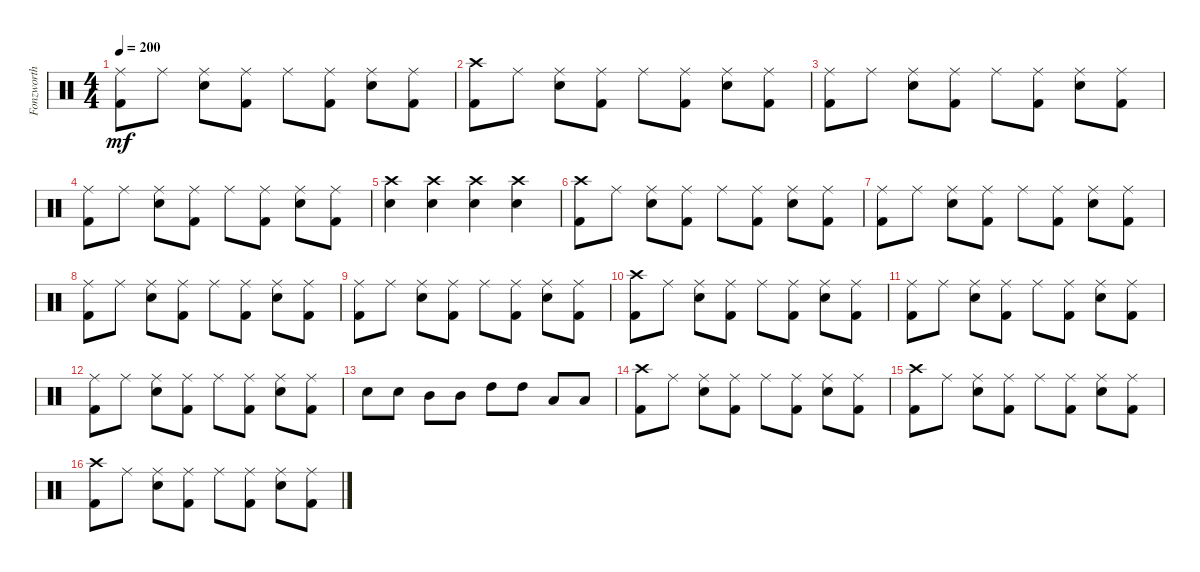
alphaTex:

\track ("Fonzworth Fred" "Fonzworth ") {instrument percussion}
\staff {score}
\articulation defaults
\ts (4 4)
\tempo 200
\clef neutral
\ks c
("Ride (middle)" "Kick (hit) 2").8{dy mf} "Ride (middle)".8 ("Ride (middle)" "Snare (hit) 2").8 ("Ride (middle)" "Kick (hit) 2").8 "Ride (middle)".8 ("Ride (middle)" "Kick (hit) 2").8 ("Ride (middle)" "Snare (hit) 2").8 ("Ride (middle)" "Kick (hit) 2").8 |
("Crash high (hit)" "Kick (hit) 2").8 "Ride (middle)".8 ("Ride (middle)" "Snare (hit) 2").8 ("Ride (middle)" "Kick (hit) 2").8 "Ride (middle)".8 ("Ride (middle)" "Kick (hit) 2").8 ("Ride (middle)" "Snare (hit) 2").8 ("Ride (middle)" "Kick (hit) 2").8 |
("Ride (middle)" "Kick (hit) 2").8 "Ride (middle)".8 ("Ride (middle)" "Snare (hit) 2").8 ("Ride (middle)" "Kick (hit) 2").8 "Ride (middle)".8 ("Ride (middle)" "Kick (hit) 2").8 ("Ride (middle)" "Snare (hit) 2").8 ("Ride (middle)" "Kick (hit) 2").8 |
("Ride (middle)" "Kick (hit) 2").8 "Ride (middle)".8 ("Ride (middle)" "Snare (hit) 2").8 ("Ride (middle)" "Kick (hit) 2").8 "Ride (middle)".8 ("Ride (middle)" "Kick (hit) 2").8 ("Ride (middle)" "Snare (hit) 2").8 ("Ride (middle)" "Kick (hit) 2").8 |
("Crash high (hit)" "Snare (hit) 2").4 ("Crash high (hit)" "Snare (hit) 2").4 ("Crash high (hit)" "Snare (hit) 2").4 ("Crash high (hit)" "Snare (hit) 2").4 |
("Crash high (hit)" "Kick (hit) 2").8 "Ride (middle)".8 ("Ride (middle)" "Snare (hit) 2").8 ("Ride (middle)" "Kick (hit) 2").8 "Ride (middle)".8 ("Ride (middle)" "Kick (hit) 2").8 ("Ride (middle)" "Snare (hit) 2").8 ("Ride (middle)" "Kick (hit) 2").8 |
("Ride (middle)" "Kick (hit) 2").8 "Ride (middle)".8 ("Ride (middle)" "Snare (hit) 2").8 ("Ride (middle)" "Kick (hit) 2").8 "Ride (middle)".8 ("Ride (middle)" "Kick (hit) 2").8 ("Ride (middle)" "Snare (hit) 2").8 ("Ride (middle)" "Kick (hit) 2").8 |
("Ride (middle)" "Kick (hit) 2").8 "Ride (middle)".8 ("Ride (middle)" "Snare (hit) 2").8 ("Ride (middle)" "Kick (hit) 2").8 "Ride (middle)".8 ("Ride (middle)" "Kick (hit) 2").8 ("Ride (middle)" "Snare (hit) 2").8 ("Ride (middle)" "Kick (hit) 2").8 |
("Ride (middle)" "Kick (hit) 2").8 "Ride (middle)".8 ("Ride (middle)" "Snare (hit) 2").8 ("Ride (middle)" "Kick (hit) 2").8 "Ride (middle)".8 ("Ride (middle)" "Kick (hit) 2").8 ("Ride (middle)" "Snare (hit) 2").8 ("Ride (middle)" "Kick (hit) 2").8 |
("Crash high (hit)" "Kick (hit) 2").8 "Ride (middle)".8 ("Ride (middle)" "Snare (hit) 2").8 ("Ride (middle)" "Kick (hit) 2").8 "Ride (middle)".8 ("Ride (middle)" "Kick (hit) 2").8 ("Ride (middle)" "Snare (hit) 2").8 ("Ride (middle)" "Kick (hit) 2").8 |
("Ride (middle)" "Kick (hit) 2").8 "Ride (middle)".8 ("Ride (middle)" "Snare (hit) 2").8 ("Ride (middle)" "Kick (hit) 2").8 "Ride (middle)".8 ("Ride (middle)" "Kick (hit) 2").8 ("Ride (middle)" "Snare (hit) 2").8 ("Ride (middle)" "Kick (hit) 2").8 |
("Ride (middle)" "Kick (hit) 2").8 "Ride (middle)".8 ("Ride (middle)" "Snare (hit) 2").8 ("Ride (middle)" "Kick (hit) 2").8 "Ride (middle)".8 ("Ride (middle)" "Kick (hit) 2").8 ("Ride (middle)" "Snare (hit) 2").8 ("Ride (middle)" "Kick (hit) 2").8 |
"Snare (hit) 2".8 "Snare (hit) 2".8 "Mid Tom (hit)".8 "Mid Tom (hit)".8 "High Tom (hit)".8 "High Tom (hit)".8 "Low Floor Tom (hit)".8 "Low Floor Tom (hit)".8 |
("Crash high (hit)" "Kick (hit) 2").8 "Ride (middle)".8 ("Ride (middle)" "Snare (hit) 2").8 ("Ride (middle)" "Kick (hit) 2").8 "Ride (middle)".8 ("Ride (middle)" "Kick (hit) 2").8 ("Ride (middle)" "Snare (hit) 2").8 ("Ride (middle)" "Kick (hit) 2").8 |
("Crash high (hit)" "Kick (hit) 2").8 "Ride (middle)".8 ("Ride (middle)" "Snare (hit) 2").8 ("Ride (middle)" "Kick (hit) 2").8 "Ride (middle)".8 ("Ride (middle)" "Kick (hit) 2").8 ("Ride (middle)" "Snare (hit) 2").8 ("Ride (middle)" "Kick (hit) 2").8 |
("Crash high (hit)" "Kick (hit) 2").8 "Ride (middle)".8 ("Ride (middle)" "Snare (hit) 2").8 ("Ride (middle)" "Kick (hit) 2").8 "Ride (middle)".8 ("Ride (middle)" "Kick (hit) 2").8 ("Ride (middle)" "Snare (hit) 2").8 ("Ride (middle)" "Kick (hit) 2").8
